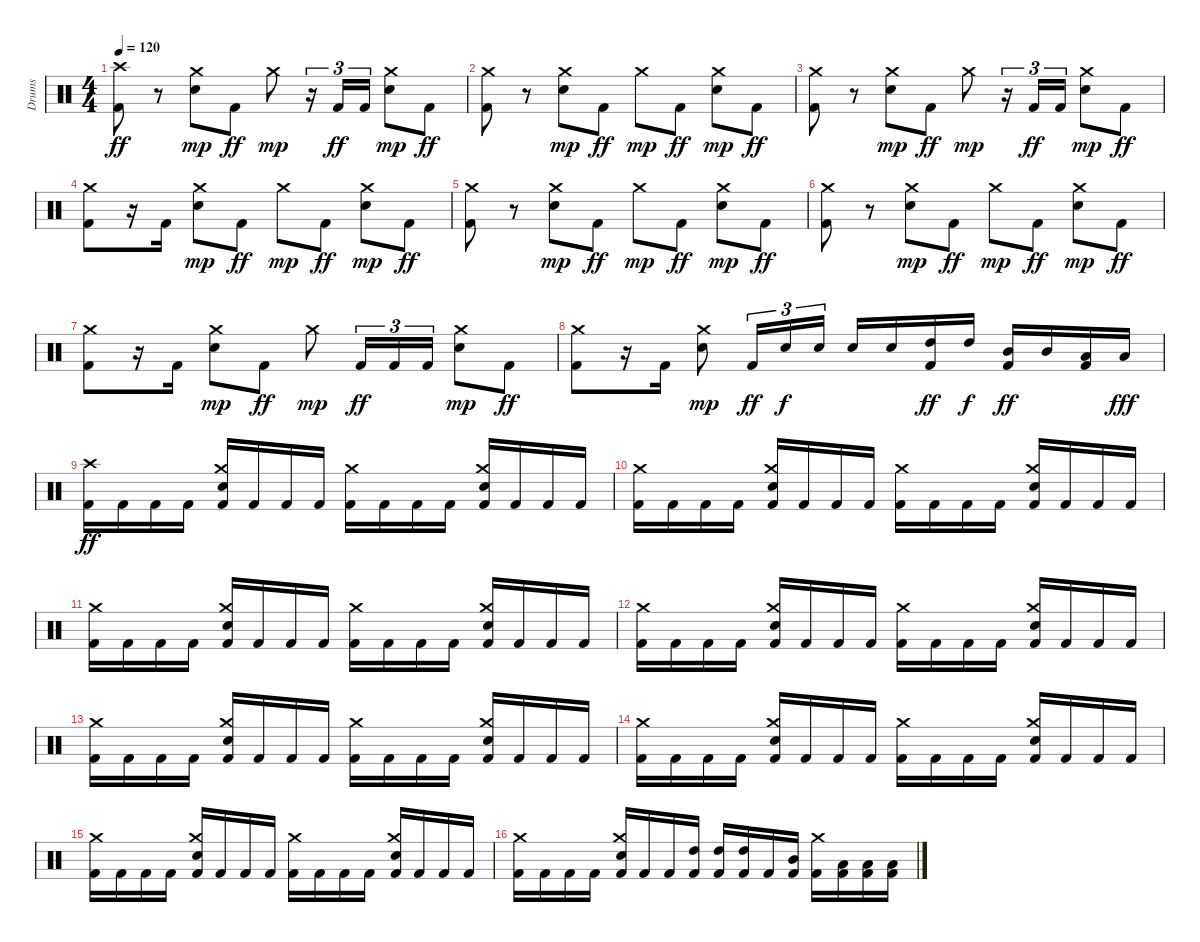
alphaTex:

\track ("Drums" "Drums") {instrument percussion}
\staff {score}
\articulation defaults
\ts (4 4)
\section ("" "")
\tempo 120
\clef neutral
\ks c
("Crash high (hit)" "Kick (hit) 2").8{dy ff} r.8 ("Crash medium (hit)" "Electric Snare (hit)").8{dy mp} "Kick (hit) 2".8{dy ff} "Crash medium (hit)".8{dy mp} r.16{tu (3 2)} "Kick (hit) 2".16{tu (3 2) dy ff} "Kick (hit) 2".16{tu (3 2)} ("Crash medium (hit)" "Electric Snare (hit)").8{dy mp} "Kick (hit) 2".8{dy ff} |
("Crash medium (hit)" "Kick (hit) 2").8 r.8 ("Crash medium (hit)" "Electric Snare (hit)").8{dy mp} "Kick (hit) 2".8{dy ff} "Crash medium (hit)".8{dy mp} "Kick (hit) 2".8{dy ff} ("Crash medium (hit)" "Electric Snare (hit)").8{dy mp} "Kick (hit) 2".8{dy ff} |
("Crash medium (hit)" "Kick (hit) 2").8 r.8 ("Crash medium (hit)" "Electric Snare (hit)").8{dy mp} "Kick (hit) 2".8{dy ff} "Crash medium (hit)".8{dy mp} r.16{tu (3 2)} "Kick (hit) 2".16{tu (3 2) dy ff} "Kick (hit) 2".16{tu (3 2)} ("Crash medium (hit)" "Electric Snare (hit)").8{dy mp} "Kick (hit) 2".8{dy ff} |
("Crash medium (hit)" "Kick (hit) 2").8 r.16 "Kick (hit) 2".16 ("Crash medium (hit)" "Electric Snare (hit)").8{dy mp} "Kick (hit) 2".8{dy ff} "Crash medium (hit)".8{dy mp} "Kick (hit) 2".8{dy ff} ("Crash medium (hit)" "Electric Snare (hit)").8{dy mp} "Kick (hit) 2".8{dy ff} |
("Crash medium (hit)" "Kick (hit) 2").8 r.8 ("Crash medium (hit)" "Electric Snare (hit)").8{dy mp} "Kick (hit) 2".8{dy ff} "Crash medium (hit)".8{dy mp} "Kick (hit) 2".8{dy ff} ("Crash medium (hit)" "Electric Snare (hit)").8{dy mp} "Kick (hit) 2".8{dy ff} |
("Crash medium (hit)" "Kick (hit) 2").8 r.8 ("Crash medium (hit)" "Electric Snare (hit)").8{dy mp} "Kick (hit) 2".8{dy ff} "Crash medium (hit)".8{dy mp} "Kick (hit) 2".8{dy ff} ("Crash medium (hit)" "Electric Snare (hit)").8{dy mp} "Kick (hit) 2".8{dy ff} |
("Crash medium (hit)" "Kick (hit) 2").8 r.16 "Kick (hit) 2".16 ("Crash medium (hit)" "Electric Snare (hit)").8{dy mp} "Kick (hit) 2".8{dy ff} "Crash medium (hit)".8{dy mp} "Kick (hit) 2".16{tu (3 2) dy ff} "Kick (hit) 2".16{tu (3 2)} "Kick (hit) 2".16{tu (3 2)} ("Crash medium (hit)" "Electric Snare (hit)").8{dy mp} "Kick (hit) 2".8{dy ff} |
("Crash medium (hit)" "Kick (hit) 2").8 r.16 "Kick (hit) 2".16 ("Crash medium (hit)" "Electric Snare (hit)").8{dy mp} "Kick (hit) 2".16{tu (3 2) dy ff} "Electric Snare (hit)".16{tu (3 2) dy f} "Electric Snare (hit)".16{tu (3 2)} "Electric Snare (hit)".16 "Electric Snare (hit)".16 ("High Tom (hit)" "Kick (hit) 2").16{dy ff} "High Tom (hit)".16{dy f} ("Mid Tom (hit)" "Kick (hit) 2").16{dy ff} "Mid Tom (hit)".16 ("Low Tom (hit)" "Kick (hit) 2").16 "Low Tom (hit)".16{dy fff} |
("Crash high (hit)" "Kick (hit) 2").16{dy ff} "Kick (hit) 2".16 "Kick (hit) 2".16 "Kick (hit) 2".16 ("Crash medium (hit)" "Electric Snare (hit)" "Kick (hit) 2").16 "Kick (hit) 2".16 "Kick (hit) 2".16 "Kick (hit) 2".16 ("Crash medium (hit)" "Kick (hit) 2").16 "Kick (hit) 2".16 "Kick (hit) 2".16 "Kick (hit) 2".16 ("Crash medium (hit)" "Electric Snare (hit)" "Kick (hit) 2").16 "Kick (hit) 2".16 "Kick (hit) 2".16 "Kick (hit) 2".16 |
("Crash medium (hit)" "Kick (hit) 2").16 "Kick (hit) 2".16 "Kick (hit) 2".16 "Kick (hit) 2".16 ("Crash medium (hit)" "Electric Snare (hit)" "Kick (hit) 2").16 "Kick (hit) 2".16 "Kick (hit) 2".16 "Kick (hit) 2".16 ("Crash medium (hit)" "Kick (hit) 2").16 "Kick (hit) 2".16 "Kick (hit) 2".16 "Kick (hit) 2".16 ("Crash medium (hit)" "Electric Snare (hit)" "Kick (hit) 2").16 "Kick (hit) 2".16 "Kick (hit) 2".16 "Kick (hit) 2".16 |
("Crash medium (hit)" "Kick (hit) 2").16 "Kick (hit) 2".16 "Kick (hit) 2".16 "Kick (hit) 2".16 ("Crash medium (hit)" "Electric Snare (hit)" "Kick (hit) 2").16 "Kick (hit) 2".16 "Kick (hit) 2".16 "Kick (hit) 2".16 ("Crash medium (hit)" "Kick (hit) 2").16 "Kick (hit) 2".16 "Kick (hit) 2".16 "Kick (hit) 2".16 ("Crash medium (hit)" "Electric Snare (hit)" "Kick (hit) 2").16 "Kick (hit) 2".16 "Kick (hit) 2".16 "Kick (hit) 2".16 |
("Crash medium (hit)" "Kick (hit) 2").16 "Kick (hit) 2".16 "Kick (hit) 2".16 "Kick (hit) 2".16 ("Crash medium (hit)" "Electric Snare (hit)" "Kick (hit) 2").16 "Kick (hit) 2".16 "Kick (hit) 2".16 "Kick (hit) 2".16 ("Crash medium (hit)" "Kick (hit) 2").16 "Kick (hit) 2".16 "Kick (hit) 2".16 "Kick (hit) 2".16 ("Crash medium (hit)" "Electric Snare (hit)" "Kick (hit) 2").16 "Kick (hit) 2".16 "Kick (hit) 2".16 "Kick (hit) 2".16 |
("Crash medium (hit)" "Kick (hit) 2").16 "Kick (hit) 2".16 "Kick (hit) 2".16 "Kick (hit) 2".16 ("Crash medium (hit)" "Electric Snare (hit)" "Kick (hit) 2").16 "Kick (hit) 2".16 "Kick (hit) 2".16 "Kick (hit) 2".16 ("Crash medium (hit)" "Kick (hit) 2").16 "Kick (hit) 2".16 "Kick (hit) 2".16 "Kick (hit) 2".16 ("Crash medium (hit)" "Electric Snare (hit)" "Kick (hit) 2").16 "Kick (hit) 2".16 "Kick (hit) 2".16 "Kick (hit) 2".16 |
("Crash medium (hit)" "Kick (hit) 2").16 "Kick (hit) 2".16 "Kick (hit) 2".16 "Kick (hit) 2".16 ("Crash medium (hit)" "Electric Snare (hit)" "Kick (hit) 2").16 "Kick (hit) 2".16 "Kick (hit) 2".16 "Kick (hit) 2".16 ("Crash medium (hit)" "Kick (hit) 2").16 "Kick (hit) 2".16 "Kick (hit) 2".16 "Kick (hit) 2".16 ("Crash medium (hit)" "Electric Snare (hit)" "Kick (hit) 2").16 "Kick (hit) 2".16 "Kick (hit) 2".16 "Kick (hit) 2".16 |
("Crash medium (hit)" "Kick (hit) 2").16 "Kick (hit) 2".16 "Kick (hit) 2".16 "Kick (hit) 2".16 ("Crash medium (hit)" "Electric Snare (hit)" "Kick (hit) 2").16 "Kick (hit) 2".16 "Kick (hit) 2".16 "Kick (hit) 2".16 ("Crash medium (hit)" "Kick (hit) 2").16 "Kick (hit) 2".16 "Kick (hit) 2".16 "Kick (hit) 2".16 ("Crash medium (hit)" "Electric Snare (hit)" "Kick (hit) 2").16 "Kick (hit) 2".16 "Kick (hit) 2".16 "Kick (hit) 2".16 |
("Crash medium (hit)" "Kick (hit) 2").16 "Kick (hit) 2".16 "Kick (hit) 2".16 "Kick (hit) 2".16 ("Crash medium (hit)" "Electric Snare (hit)" "Kick (hit) 2").16 "Kick (hit) 2".16 "Kick (hit) 2".16 ("High Tom (hit)" "Kick (hit) 2").16 ("High Tom (hit)" "Kick (hit) 2").16 ("High Tom (hit)" "Kick (hit) 2").16 "Kick (hit) 2".16 ("Mid Tom (hit)" "Kick (hit) 2").16 ("Crash medium (hit)" "Kick (hit) 2").16 ("Low Tom (hit)" "Kick (hit) 2").16 ("Low Tom (hit)" "Kick (hit) 2").16 ("Low Tom (hit)" "Kick (hit) 2").16
